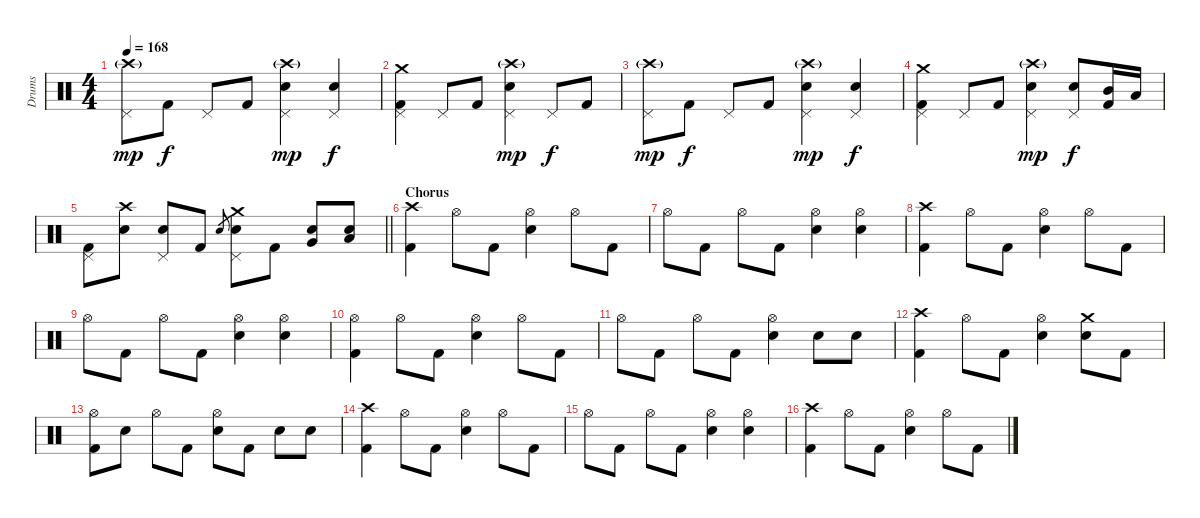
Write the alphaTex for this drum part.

\track ("Drums" "Drums") {instrument percussion}
\staff {score}
\articulation defaults
\ts (4 4)
\tempo 168
\clef neutral
\ks c
("Crash high (hit)"{g} "Pedal Hi-Hat (hit)").8{dy mp} "Kick (hit) 2".8{dy f} "Pedal Hi-Hat (hit)".8 "Kick (hit) 2".8 ("Crash high (hit)"{g} "Pedal Hi-Hat (hit)" "Snare (hit) 2").4{dy mp} ("Pedal Hi-Hat (hit)" "Snare (hit) 2").4{dy f} |
("Crash medium (hit)" "Pedal Hi-Hat (hit)" "Kick (hit) 2").4 "Pedal Hi-Hat (hit)".8 "Kick (hit) 2".8 ("Crash high (hit)"{g} "Pedal Hi-Hat (hit)" "Snare (hit) 2").4{dy mp} "Pedal Hi-Hat (hit)".8{dy f} "Kick (hit) 2".8 |
("Crash high (hit)"{g} "Pedal Hi-Hat (hit)").8{dy mp} "Kick (hit) 2".8{dy f} "Pedal Hi-Hat (hit)".8 "Kick (hit) 2".8 ("Crash high (hit)"{g} "Pedal Hi-Hat (hit)" "Snare (hit) 2").4{dy mp} ("Pedal Hi-Hat (hit)" "Snare (hit) 2").4{dy f} |
("Crash medium (hit)" "Pedal Hi-Hat (hit)" "Kick (hit) 2").4 "Pedal Hi-Hat (hit)".8 "Kick (hit) 2".8 ("Crash high (hit)"{g} "Pedal Hi-Hat (hit)" "Snare (hit) 2").4{dy mp} ("Pedal Hi-Hat (hit)" "Snare (hit) 2").8{dy f} ("Mid Tom (hit)" "Kick (hit) 2").16 "Low Tom (hit)".16 |
\barLineRight lightlight
("Pedal Hi-Hat (hit)" "Kick (hit) 2").8 ("Crash high (hit)" "Snare (hit) 2").8 ("Pedal Hi-Hat (hit)" "Snare (hit) 2").8 "Kick (hit) 2".8 "Snare (hit) 2".8{gr} ("Crash medium (hit)" "Pedal Hi-Hat (hit)" "Snare (hit) 2").8 "Kick (hit) 2".8 ("Very Low Tom (hit)" "Snare (hit) 2").8 ("Low Floor Tom (hit)" "Snare (hit) 2").8 |
\section ("" "Chorus")
("Crash high (hit)" "Kick (hit) 2").4 "Hi-Hat (open)".8 "Kick (hit) 2".8 ("Hi-Hat (open)" "Snare (hit) 2").4 "Hi-Hat (open)".8 "Kick (hit) 2".8 |
"Hi-Hat (open)".8 "Kick (hit) 2".8 "Hi-Hat (open)".8 "Kick (hit) 2".8 ("Hi-Hat (open)" "Snare (hit) 2").4 ("Hi-Hat (open)" "Snare (hit) 2").4 |
("Crash high (hit)" "Kick (hit) 2").4 "Hi-Hat (open)".8 "Kick (hit) 2".8 ("Hi-Hat (open)" "Snare (hit) 2").4 "Hi-Hat (open)".8 "Kick (hit) 2".8 |
"Hi-Hat (open)".8 "Kick (hit) 2".8 "Hi-Hat (open)".8 "Kick (hit) 2".8 ("Hi-Hat (open)" "Snare (hit) 2").4 ("Hi-Hat (open)" "Snare (hit) 2").4 |
("Hi-Hat (open)" "Kick (hit) 2").4 "Hi-Hat (open)".8 "Kick (hit) 2".8 ("Hi-Hat (open)" "Snare (hit) 2").4 "Hi-Hat (open)".8 "Kick (hit) 2".8 |
"Hi-Hat (open)".8 "Kick (hit) 2".8 "Hi-Hat (open)".8 "Kick (hit) 2".8 ("Hi-Hat (open)" "Snare (hit) 2").4 "Snare (hit) 2".8 "Snare (hit) 2".8 |
("Crash high (hit)" "Kick (hit) 2").4 "Hi-Hat (open)".8 "Kick (hit) 2".8 ("Hi-Hat (open)" "Snare (hit) 2").4 ("Crash medium (hit)" "Snare (hit) 2").8 "Kick (hit) 2".8 |
("Hi-Hat (open)" "Kick (hit) 2").8 "Snare (hit) 2".8 "Hi-Hat (open)".8 "Kick (hit) 2".8 ("Hi-Hat (open)" "Snare (hit) 2").8 "Kick (hit) 2".8 "Snare (hit) 2".8 "Snare (hit) 2".8 |
("Crash high (hit)" "Kick (hit) 2").4 "Hi-Hat (open)".8 "Kick (hit) 2".8 ("Hi-Hat (open)" "Snare (hit) 2").4 "Hi-Hat (open)".8 "Kick (hit) 2".8 |
"Hi-Hat (open)".8 "Kick (hit) 2".8 "Hi-Hat (open)".8 "Kick (hit) 2".8 ("Hi-Hat (open)" "Snare (hit) 2").4 ("Hi-Hat (open)" "Snare (hit) 2").4 |
("Crash high (hit)" "Kick (hit) 2").4 "Hi-Hat (open)".8 "Kick (hit) 2".8 ("Hi-Hat (open)" "Snare (hit) 2").4 "Hi-Hat (open)".8 "Kick (hit) 2".8
